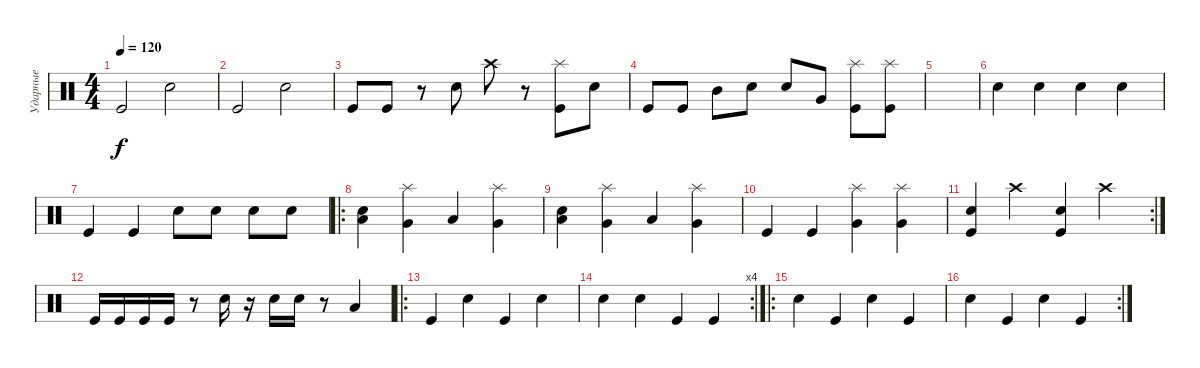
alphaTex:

\track ("Ударные" "Ударные") {instrument percussion}
\staff {score}
\articulation defaults
\ts (4 4)
\tempo 120
\clef neutral
\ks c "Kick (hit)".2{dy f} "Snare (hit) 2".2
|
"Kick (hit)".2 "Snare (hit) 2".2 |
"Kick (hit)".8 "Kick (hit)".8 r.8 "Snare (hit) 2".8 "Crash high (hit)".8 r.8 ("Kick (hit)" "Splash (hit)").8 "Snare (hit) 2".8 |
"Kick (hit)".8 "Kick (hit)".8 "Mid Tom (hit)".8 "Snare (hit) 2".8 "Snare (hit) 2".8 "Very Low Tom (hit)".8 ("Kick (hit)" "Splash (hit)").8 ("Kick (hit)" "Splash (hit)").8 |
|
"Electric Snare (hit)".4 "Electric Snare (hit)".4 "Electric Snare (hit)".4 "Electric Snare (hit)".4 |
"Kick (hit)".4 "Kick (hit)".4 "Electric Snare (hit)".8 "Electric Snare (hit)".8 "Electric Snare (hit)".8 "Electric Snare (hit)".8 |
\ro
("Low Tom (hit)" "Electric Snare (hit)").4 ("Very Low Tom (hit)" "Splash (hit)").4 "Low Tom (hit)".4 ("Very Low Tom (hit)" "Splash (hit)").4 |
("Low Tom (hit)" "Electric Snare (hit)").4 ("Very Low Tom (hit)" "Splash (hit)").4 "Low Tom (hit)".4 ("Very Low Tom (hit)" "Splash (hit)").4 |
"Kick (hit)".4 "Kick (hit)".4 ("Very Low Tom (hit)" "Splash (hit)").4 ("Splash (hit)" "Very Low Tom (hit)").4 |
\rc 2
("Kick (hit)" "Electric Snare (hit)").4 "Crash high (hit)".4 ("Kick (hit)" "Electric Snare (hit)").4 "Crash high (hit)".4 |
"Kick (hit)".16 "Kick (hit)".16 "Kick (hit)".16 "Kick (hit)".16 r.8 "Electric Snare (hit)".16 r.16 "Electric Snare (hit)".16 "Electric Snare (hit)".16 r.8 "Low Tom (hit)".4 |
\ro "Kick (hit)".4 "Snare (hit) 2".4 "Kick (hit)".4 "Snare (hit) 2".4
|
\rc 4 "Snare (hit) 2".4 "Snare (hit) 2".4 "Kick (hit)".4 "Kick (hit)".4
|
\ro "Snare (hit) 2".4 "Kick (hit)".4 "Snare (hit) 2".4 "Kick (hit)".4
|
\rc 2 "Snare (hit) 2".4 "Kick (hit)".4 "Snare (hit) 2".4 "Kick (hit)".4
